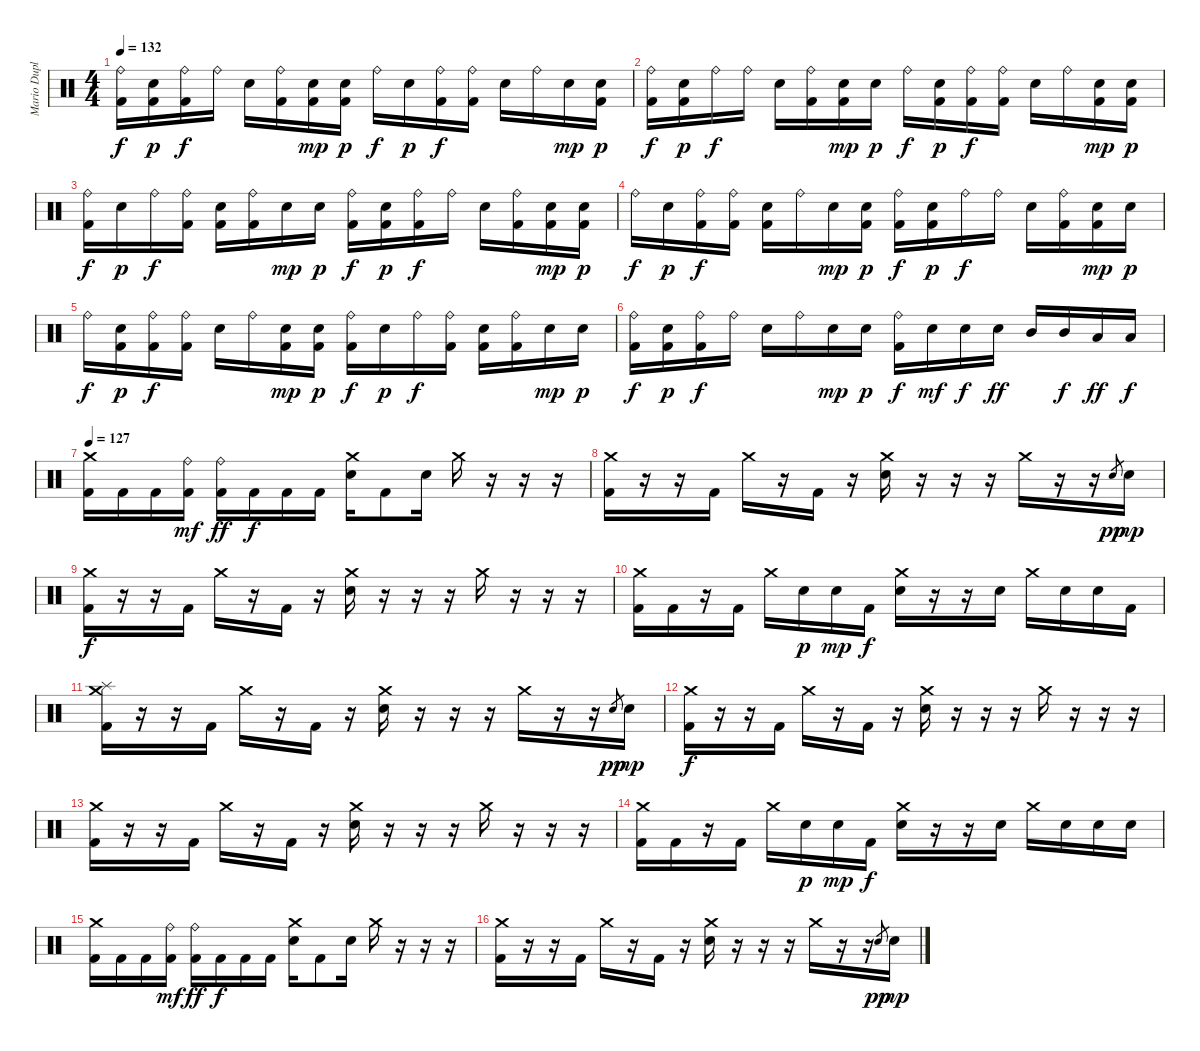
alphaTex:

\track ("Mario Duplantier" "Mario Dupl") {instrument percussion}
\staff {score}
\articulation defaults
\ts (4 4)
\tempo 132
\clef neutral
\ks c
("Ride (bell)" "Kick (hit) 2").16{dy f} ("Electric Snare (hit)" "Kick (hit) 2").16{dy p} ("Ride (bell)" "Kick (hit) 2").16{dy f} "Ride (bell)".16 "Electric Snare (hit)".16 ("Ride (bell)" "Kick (hit) 2").16 ("Electric Snare (hit)" "Kick (hit) 2").16{dy mp} ("Electric Snare (hit)" "Kick (hit) 2").16{dy p} "Ride (bell)".16{dy f} "Electric Snare (hit)".16{dy p} ("Ride (bell)" "Kick (hit) 2").16{dy f} ("Ride (bell)" "Kick (hit) 2").16 "Electric Snare (hit)".16 "Ride (bell)".16 "Electric Snare (hit)".16{dy mp} ("Electric Snare (hit)" "Kick (hit) 2").16{dy p} |
("Ride (bell)" "Kick (hit) 2").16{dy f} ("Electric Snare (hit)" "Kick (hit) 2").16{dy p} "Ride (bell)".16{dy f} "Ride (bell)".16 "Electric Snare (hit)".16 ("Ride (bell)" "Kick (hit) 2").16 ("Electric Snare (hit)" "Kick (hit) 2").16{dy mp} "Electric Snare (hit)".16{dy p} "Ride (bell)".16{dy f} ("Electric Snare (hit)" "Kick (hit) 2").16{dy p} ("Ride (bell)" "Kick (hit) 2").16{dy f} ("Ride (bell)" "Kick (hit) 2").16 "Electric Snare (hit)".16 "Ride (bell)".16 ("Electric Snare (hit)" "Kick (hit) 2").16{dy mp} ("Electric Snare (hit)" "Kick (hit) 2").16{dy p} |
("Ride (bell)" "Kick (hit) 2").16{dy f} "Electric Snare (hit)".16{dy p} "Ride (bell)".16{dy f} ("Ride (bell)" "Kick (hit) 2").16 ("Electric Snare (hit)" "Kick (hit) 2").16 ("Ride (bell)" "Kick (hit) 2").16 "Electric Snare (hit)".16{dy mp} "Electric Snare (hit)".16{dy p} ("Ride (bell)" "Kick (hit) 2").16{dy f} ("Electric Snare (hit)" "Kick (hit) 2").16{dy p} ("Ride (bell)" "Kick (hit) 2").16{dy f} "Ride (bell)".16 "Electric Snare (hit)".16 ("Ride (bell)" "Kick (hit) 2").16 ("Electric Snare (hit)" "Kick (hit) 2").16{dy mp} ("Electric Snare (hit)" "Kick (hit) 2").16{dy p} |
"Ride (bell)".16{dy f} "Electric Snare (hit)".16{dy p} ("Ride (bell)" "Kick (hit) 2").16{dy f} ("Ride (bell)" "Kick (hit) 2").16 ("Electric Snare (hit)" "Kick (hit) 2").16 "Ride (bell)".16 "Electric Snare (hit)".16{dy mp} ("Electric Snare (hit)" "Kick (hit) 2").16{dy p} ("Ride (bell)" "Kick (hit) 2").16{dy f} ("Electric Snare (hit)" "Kick (hit) 2").16{dy p} "Ride (bell)".16{dy f} "Ride (bell)".16 "Electric Snare (hit)".16 ("Ride (bell)" "Kick (hit) 2").16 ("Electric Snare (hit)" "Kick (hit) 2").16{dy mp} "Electric Snare (hit)".16{dy p} |
"Ride (bell)".16{dy f} ("Electric Snare (hit)" "Kick (hit) 2").16{dy p} ("Ride (bell)" "Kick (hit) 2").16{dy f} ("Ride (bell)" "Kick (hit) 2").16 "Electric Snare (hit)".16 "Ride (bell)".16 ("Electric Snare (hit)" "Kick (hit) 2").16{dy mp} ("Electric Snare (hit)" "Kick (hit) 2").16{dy p} ("Ride (bell)" "Kick (hit) 2").16{dy f} "Electric Snare (hit)".16{dy p} "Ride (bell)".16{dy f} ("Ride (bell)" "Kick (hit) 2").16 ("Electric Snare (hit)" "Kick (hit) 2").16 ("Ride (bell)" "Kick (hit) 2").16 "Electric Snare (hit)".16{dy mp} "Electric Snare (hit)".16{dy p} |
("Ride (bell)" "Kick (hit) 2").16{dy f} ("Electric Snare (hit)" "Kick (hit) 2").16{dy p} ("Ride (bell)" "Kick (hit) 2").16{dy f} "Ride (bell)".16 "Electric Snare (hit)".16 "Ride (bell)".16 "Electric Snare (hit)".16{dy mp} "Electric Snare (hit)".16{dy p} ("Ride (bell)" "Kick (hit) 2").16{dy f} "Electric Snare (hit)".16{dy mf} "Electric Snare (hit)".16{dy f} "Electric Snare (hit)".16{dy ff} "Mid Tom (hit)".16 "Mid Tom (hit)".16{dy f} "Low Tom (hit)".16{dy ff} "Low Tom (hit)".16{dy f} |
\tempo 127
("Crash medium (hit)" "Kick (hit) 2").16 "Kick (hit) 2".16 "Kick (hit) 2".16 ("Ride (bell)" "Kick (hit) 2").16{dy mf} ("Ride (bell)" "Kick (hit) 2").16{dy ff} "Kick (hit) 2".16{dy f} "Kick (hit) 2".16 "Kick (hit) 2".16 ("Crash medium (hit)" "Electric Snare (hit)").16 "Kick (hit) 2".8 "Electric Snare (hit)".16 "Crash medium (hit)".16 r.16 r.16 r.16 |
("Crash medium (hit)" "Kick (hit) 2").16 r.16 r.16 "Kick (hit) 2".16 "Crash medium (hit)".16 r.16 "Kick (hit) 2".16 r.16 ("Crash medium (hit)" "Electric Snare (hit)").16 r.16 r.16 r.16 "Crash medium (hit)".16 r.16 r.16 "Electric Snare (hit)".8{gr dy pp} "Electric Snare (hit)".16{dy mp} |
("Crash medium (hit)" "Kick (hit) 2").16{dy f} r.16 r.16 "Kick (hit) 2".16 "Crash medium (hit)".16 r.16 "Kick (hit) 2".16 r.16 ("Crash medium (hit)" "Electric Snare (hit)").16 r.16 r.16 r.16 "Crash medium (hit)".16 r.16 r.16 r.16 |
("Crash medium (hit)" "Kick (hit) 2").16 "Kick (hit) 2".16 r.16 "Kick (hit) 2".16 "Crash medium (hit)".16 "Electric Snare (hit)".16{dy p} "Electric Snare (hit)".16{dy mp} "Kick (hit) 2".16{dy f} ("Crash medium (hit)" "Electric Snare (hit)").16 r.16 r.16 "Electric Snare (hit)".16 "Crash medium (hit)".16 "Electric Snare (hit)".16 "Electric Snare (hit)".16 "Kick (hit) 2".16 |
("Crash medium (hit)" "Splash (hit)" "Kick (hit) 2").16 r.16 r.16 "Kick (hit) 2".16 "Crash medium (hit)".16 r.16 "Kick (hit) 2".16 r.16 ("Crash medium (hit)" "Electric Snare (hit)").16 r.16 r.16 r.16 "Crash medium (hit)".16 r.16 r.16 "Electric Snare (hit)".8{gr dy pp} "Electric Snare (hit)".16{dy mp} |
("Crash medium (hit)" "Kick (hit) 2").16{dy f} r.16 r.16 "Kick (hit) 2".16 "Crash medium (hit)".16 r.16 "Kick (hit) 2".16 r.16 ("Crash medium (hit)" "Electric Snare (hit)").16 r.16 r.16 r.16 "Crash medium (hit)".16 r.16 r.16 r.16 |
("Crash medium (hit)" "Kick (hit) 2").16 r.16 r.16 "Kick (hit) 2".16 "Crash medium (hit)".16 r.16 "Kick (hit) 2".16 r.16 ("Crash medium (hit)" "Electric Snare (hit)").16 r.16 r.16 r.16 "Crash medium (hit)".16 r.16 r.16 r.16 |
("Crash medium (hit)" "Kick (hit) 2").16 "Kick (hit) 2".16 r.16 "Kick (hit) 2".16 "Crash medium (hit)".16 "Electric Snare (hit)".16{dy p} "Electric Snare (hit)".16{dy mp} "Kick (hit) 2".16{dy f} ("Crash medium (hit)" "Electric Snare (hit)").16 r.16 r.16 "Electric Snare (hit)".16 "Crash medium (hit)".16 "Electric Snare (hit)".16 "Electric Snare (hit)".16 "Electric Snare (hit)".16 |
("Crash medium (hit)" "Kick (hit) 2").16 "Kick (hit) 2".16 "Kick (hit) 2".16 ("Ride (bell)" "Kick (hit) 2").16{dy mf} ("Ride (bell)" "Kick (hit) 2").16{dy ff} "Kick (hit) 2".16{dy f} "Kick (hit) 2".16 "Kick (hit) 2".16 ("Crash medium (hit)" "Electric Snare (hit)").16 "Kick (hit) 2".8 "Electric Snare (hit)".16 "Crash medium (hit)".16 r.16 r.16 r.16 |
("Crash medium (hit)" "Kick (hit) 2").16 r.16 r.16 "Kick (hit) 2".16 "Crash medium (hit)".16 r.16 "Kick (hit) 2".16 r.16 ("Crash medium (hit)" "Electric Snare (hit)").16 r.16 r.16 r.16 "Crash medium (hit)".16 r.16 r.16 "Electric Snare (hit)".8{gr dy pp} "Electric Snare (hit)".16{dy mp}
